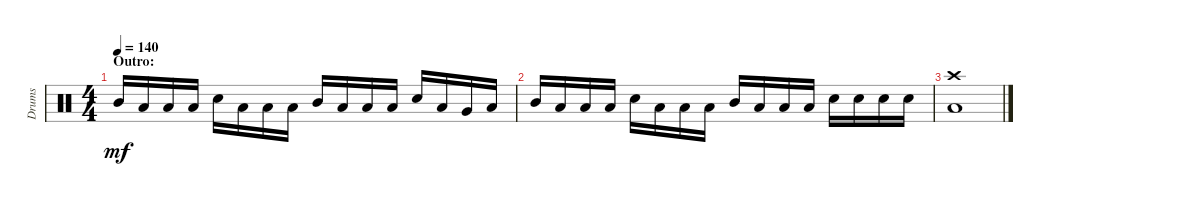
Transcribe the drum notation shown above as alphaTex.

\track ("Drums" "Drums") {instrument percussion}
\staff {score}
\articulation defaults
\ts (4 4)
\section ("" "Outro:")
\tempo 140
\clef neutral
\ks c "Mid Tom (hit)".16{dy mf} "Low Floor Tom (hit)".16 "Low Tom (hit)".16 "Low Floor Tom (hit)".16 "Snare (hit) 2".16 "Low Floor Tom (hit)".16 "Low Tom (hit)".16 "Low Floor Tom (hit)".16 "Mid Tom (hit)".16 "Low Floor Tom (hit)".16 "Low Tom (hit)".16 "Low Floor Tom (hit)".16 "Snare (hit) 2".16 "Low Floor Tom (hit)".16 "Very Low Tom (hit)".16 "Low Floor Tom (hit)".16
|
"Mid Tom (hit)".16 "Low Floor Tom (hit)".16 "Low Tom (hit)".16 "Low Floor Tom (hit)".16 "Snare (hit) 2".16 "Low Floor Tom (hit)".16 "Low Tom (hit)".16 "Low Floor Tom (hit)".16 "Mid Tom (hit)".16 "Low Floor Tom (hit)".16 "Low Tom (hit)".16 "Low Floor Tom (hit)".16 "Snare (hit) 2".16 "Snare (hit) 2".16 "Snare (hit) 2".16 "Snare (hit) 2".16 |
("Crash high (hit)" "Low Floor Tom (hit)").1
